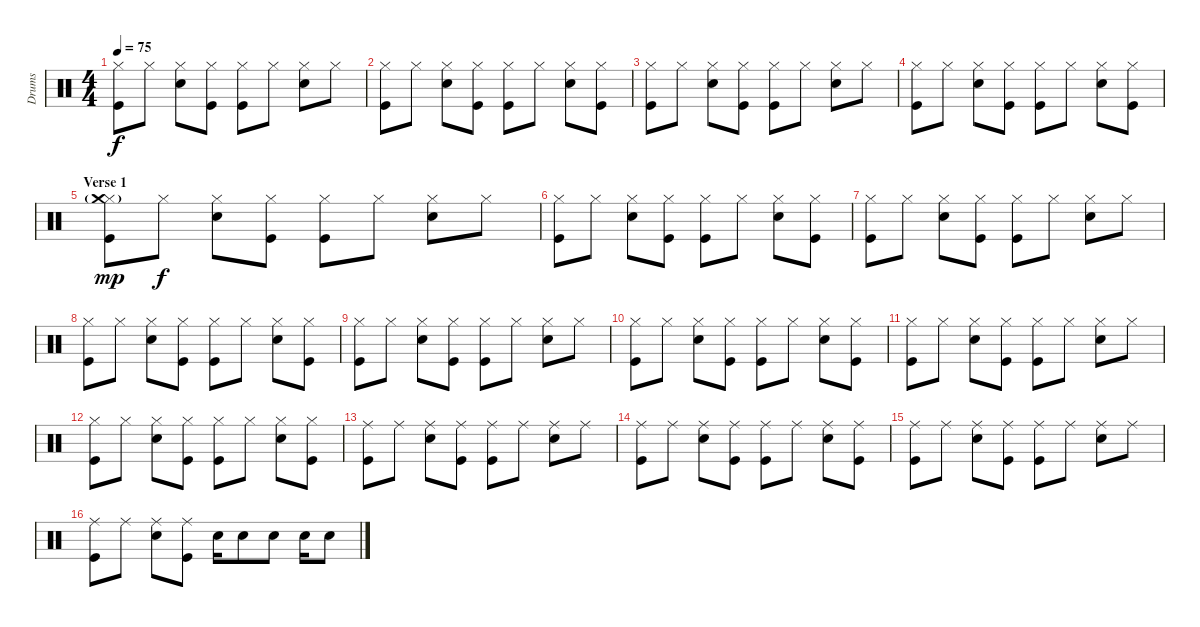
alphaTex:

\track ("Drums" "Drums") {instrument percussion}
\staff {score}
\articulation defaults
\ts (4 4)
\tempo 75
\clef neutral
\ks c
("Hi-Hat (closed)" "Kick (hit)").8{dy f} "Hi-Hat (closed)".8 ("Hi-Hat (closed)" "Snare (hit) 2").8 ("Hi-Hat (closed)" "Kick (hit)").8 ("Hi-Hat (closed)" "Kick (hit)").8 "Hi-Hat (closed)".8 ("Hi-Hat (closed)" "Snare (hit) 2").8 "Hi-Hat (closed)".8 |
("Hi-Hat (closed)" "Kick (hit)").8 "Hi-Hat (closed)".8 ("Hi-Hat (closed)" "Snare (hit) 2").8 ("Hi-Hat (closed)" "Kick (hit)").8 ("Hi-Hat (closed)" "Kick (hit)").8 "Hi-Hat (closed)".8 ("Hi-Hat (closed)" "Snare (hit) 2").8 ("Hi-Hat (closed)" "Kick (hit)").8 |
("Hi-Hat (closed)" "Kick (hit)").8 "Hi-Hat (closed)".8 ("Hi-Hat (closed)" "Snare (hit) 2").8 ("Hi-Hat (closed)" "Kick (hit)").8 ("Hi-Hat (closed)" "Kick (hit)").8 "Hi-Hat (closed)".8 ("Hi-Hat (closed)" "Snare (hit) 2").8 "Hi-Hat (closed)".8 |
("Hi-Hat (closed)" "Kick (hit)").8 "Hi-Hat (closed)".8 ("Hi-Hat (closed)" "Snare (hit) 2").8 ("Hi-Hat (closed)" "Kick (hit)").8 ("Hi-Hat (closed)" "Kick (hit)").8 "Hi-Hat (closed)".8 ("Hi-Hat (closed)" "Snare (hit) 2").8 ("Hi-Hat (closed)" "Kick (hit)").8 |
\section ("" "Verse 1")
("Hi-Hat (closed)" "Crash medium (hit)"{g} "Kick (hit)").8{dy mp} "Hi-Hat (closed)".8{dy f} ("Hi-Hat (closed)" "Snare (hit) 2").8 ("Hi-Hat (closed)" "Kick (hit)").8 ("Hi-Hat (closed)" "Kick (hit)").8 "Hi-Hat (closed)".8 ("Hi-Hat (closed)" "Snare (hit) 2").8 "Hi-Hat (closed)".8 |
("Hi-Hat (closed)" "Kick (hit)").8 "Hi-Hat (closed)".8 ("Hi-Hat (closed)" "Snare (hit) 2").8 ("Hi-Hat (closed)" "Kick (hit)").8 ("Hi-Hat (closed)" "Kick (hit)").8 "Hi-Hat (closed)".8 ("Hi-Hat (closed)" "Snare (hit) 2").8 ("Hi-Hat (closed)" "Kick (hit)").8 |
("Hi-Hat (closed)" "Kick (hit)").8 "Hi-Hat (closed)".8 ("Hi-Hat (closed)" "Snare (hit) 2").8 ("Hi-Hat (closed)" "Kick (hit)").8 ("Hi-Hat (closed)" "Kick (hit)").8 "Hi-Hat (closed)".8 ("Hi-Hat (closed)" "Snare (hit) 2").8 "Hi-Hat (closed)".8 |
("Hi-Hat (closed)" "Kick (hit)").8 "Hi-Hat (closed)".8 ("Hi-Hat (closed)" "Snare (hit) 2").8 ("Hi-Hat (closed)" "Kick (hit)").8 ("Hi-Hat (closed)" "Kick (hit)").8 "Hi-Hat (closed)".8 ("Hi-Hat (closed)" "Snare (hit) 2").8 ("Hi-Hat (closed)" "Kick (hit)").8 |
\section ("" "")
("Hi-Hat (closed)" "Kick (hit)").8 "Hi-Hat (closed)".8 ("Hi-Hat (closed)" "Snare (hit) 2").8 ("Hi-Hat (closed)" "Kick (hit)").8 ("Hi-Hat (closed)" "Kick (hit)").8 "Hi-Hat (closed)".8 ("Hi-Hat (closed)" "Snare (hit) 2").8 "Hi-Hat (closed)".8 |
("Hi-Hat (closed)" "Kick (hit)").8 "Hi-Hat (closed)".8 ("Hi-Hat (closed)" "Snare (hit) 2").8 ("Hi-Hat (closed)" "Kick (hit)").8 ("Hi-Hat (closed)" "Kick (hit)").8 "Hi-Hat (closed)".8 ("Hi-Hat (closed)" "Snare (hit) 2").8 ("Hi-Hat (closed)" "Kick (hit)").8 |
("Hi-Hat (closed)" "Kick (hit)").8 "Hi-Hat (closed)".8 ("Hi-Hat (closed)" "Snare (hit) 2").8 ("Hi-Hat (closed)" "Kick (hit)").8 ("Hi-Hat (closed)" "Kick (hit)").8 "Hi-Hat (closed)".8 ("Hi-Hat (closed)" "Snare (hit) 2").8 "Hi-Hat (closed)".8 |
("Hi-Hat (closed)" "Kick (hit)").8 "Hi-Hat (closed)".8 ("Hi-Hat (closed)" "Snare (hit) 2").8 ("Hi-Hat (closed)" "Kick (hit)").8 ("Hi-Hat (closed)" "Kick (hit)").8 "Hi-Hat (closed)".8 ("Hi-Hat (closed)" "Snare (hit) 2").8 ("Hi-Hat (closed)" "Kick (hit)").8 |
\section ("" "")
("Ride (middle)" "Kick (hit)").8 "Ride (middle)".8 ("Ride (middle)" "Snare (hit) 2").8 ("Ride (middle)" "Kick (hit)").8 ("Ride (middle)" "Kick (hit)").8 "Ride (middle)".8 ("Ride (middle)" "Snare (hit) 2").8 "Ride (middle)".8 |
("Ride (middle)" "Kick (hit)").8 "Ride (middle)".8 ("Ride (middle)" "Snare (hit) 2").8 ("Ride (middle)" "Kick (hit)").8 ("Ride (middle)" "Kick (hit)").8 "Ride (middle)".8 ("Ride (middle)" "Snare (hit) 2").8 ("Ride (middle)" "Kick (hit)").8 |
("Ride (middle)" "Kick (hit)").8 "Ride (middle)".8 ("Ride (middle)" "Snare (hit) 2").8 ("Ride (middle)" "Kick (hit)").8 ("Ride (middle)" "Kick (hit)").8 "Ride (middle)".8 ("Ride (middle)" "Snare (hit) 2").8 "Ride (middle)".8 |
("Ride (middle)" "Kick (hit)").8 "Ride (middle)".8 ("Ride (middle)" "Snare (hit) 2").8 ("Ride (middle)" "Kick (hit)").8 "Snare (hit) 2".16 "Snare (hit) 2".8 "Snare (hit) 2".8 "Snare (hit) 2".16 "Snare (hit) 2".8
